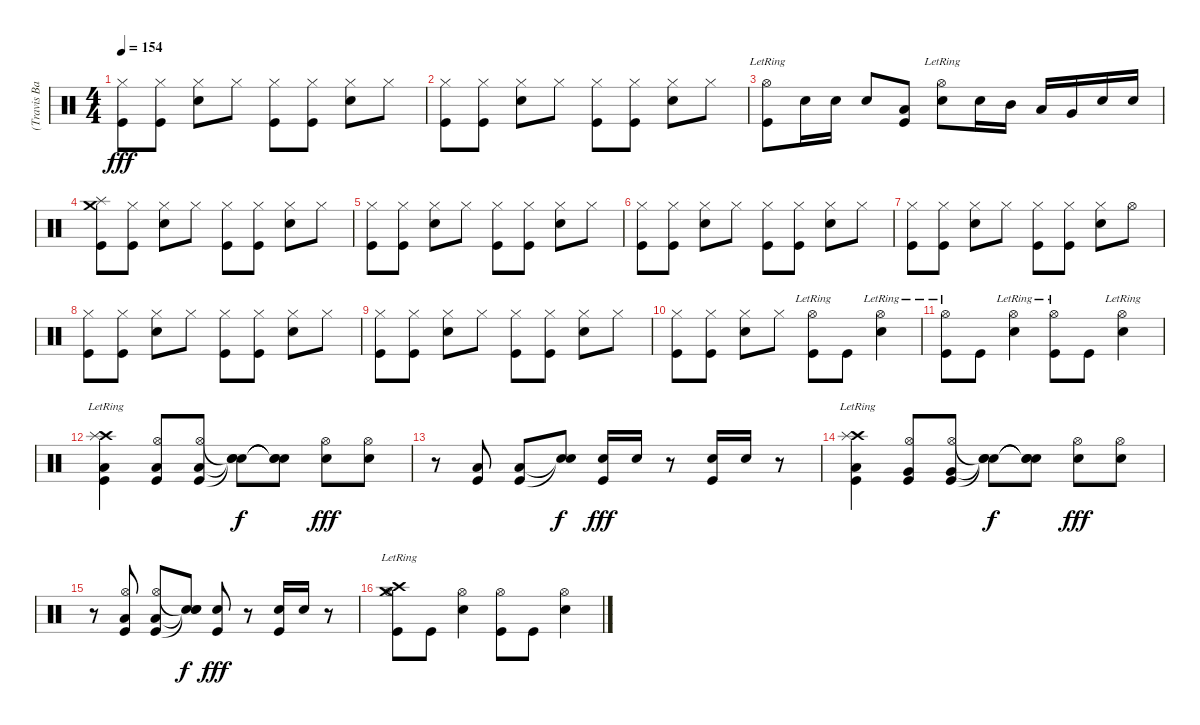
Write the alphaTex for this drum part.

\track ("(Travis Barker) Drums" "(Travis Ba") {instrument percussion}
\staff {score}
\articulation defaults
\ts (4 4)
\tempo 154
\clef neutral
\ks c
("Hi-Hat (closed)" "Kick (hit)").8{dy fff} ("Hi-Hat (closed)" "Kick (hit)").8 ("Hi-Hat (closed)" "Snare (hit) 2").8 "Hi-Hat (closed)".8 ("Hi-Hat (closed)" "Kick (hit)").8 ("Hi-Hat (closed)" "Kick (hit)").8 ("Hi-Hat (closed)" "Snare (hit) 2").8 "Hi-Hat (closed)".8 |
("Hi-Hat (closed)" "Kick (hit)").8 ("Hi-Hat (closed)" "Kick (hit)").8 ("Hi-Hat (closed)" "Snare (hit) 2").8 "Hi-Hat (closed)".8 ("Hi-Hat (closed)" "Kick (hit)").8 ("Hi-Hat (closed)" "Kick (hit)").8 ("Hi-Hat (closed)" "Snare (hit) 2").8 "Hi-Hat (closed)".8 |
("Hi-Hat (open)"{lr} "Kick (hit)").8 "Snare (hit) 2".16 "Snare (hit) 2".16 "Snare (hit) 2".8 ("Low Tom (hit)" "Kick (hit)").8 ("Hi-Hat (open)"{lr} "Snare (hit) 2").8 "Snare (hit) 2".16 "Mid Tom (hit)".16 "Low Tom (hit)".16 "Very Low Tom (hit)".16 "Snare (hit) 2".16 "Snare (hit) 2".16 |
("Splash (hit)" "Crash medium (hit)" "Kick (hit)").8 ("Hi-Hat (closed)" "Kick (hit)").8 ("Hi-Hat (closed)" "Snare (hit) 2").8 "Hi-Hat (closed)".8 ("Hi-Hat (closed)" "Kick (hit)").8 ("Hi-Hat (closed)" "Kick (hit)").8 ("Hi-Hat (closed)" "Snare (hit) 2").8 "Hi-Hat (closed)".8 |
("Hi-Hat (closed)" "Kick (hit)").8 ("Hi-Hat (closed)" "Kick (hit)").8 ("Hi-Hat (closed)" "Snare (hit) 2").8 "Hi-Hat (closed)".8 ("Hi-Hat (closed)" "Kick (hit)").8 ("Hi-Hat (closed)" "Kick (hit)").8 ("Hi-Hat (closed)" "Snare (hit) 2").8 "Hi-Hat (closed)".8 |
("Hi-Hat (closed)" "Kick (hit)").8 ("Hi-Hat (closed)" "Kick (hit)").8 ("Hi-Hat (closed)" "Snare (hit) 2").8 "Hi-Hat (closed)".8 ("Hi-Hat (closed)" "Kick (hit)").8 ("Hi-Hat (closed)" "Kick (hit)").8 ("Hi-Hat (closed)" "Snare (hit) 2").8 "Hi-Hat (closed)".8 |
("Hi-Hat (closed)" "Kick (hit)").8 ("Hi-Hat (closed)" "Kick (hit)").8 ("Hi-Hat (closed)" "Snare (hit) 2").8 "Hi-Hat (closed)".8 ("Hi-Hat (closed)" "Kick (hit)").8 ("Hi-Hat (closed)" "Kick (hit)").8 ("Hi-Hat (closed)" "Snare (hit) 2").8 "Hi-Hat (open)".8 |
("Hi-Hat (closed)" "Kick (hit)").8 ("Hi-Hat (closed)" "Kick (hit)").8 ("Hi-Hat (closed)" "Snare (hit) 2").8 "Hi-Hat (closed)".8 ("Hi-Hat (closed)" "Kick (hit)").8 ("Hi-Hat (closed)" "Kick (hit)").8 ("Hi-Hat (closed)" "Snare (hit) 2").8 "Hi-Hat (closed)".8 |
("Hi-Hat (closed)" "Kick (hit)").8 ("Hi-Hat (closed)" "Kick (hit)").8 ("Hi-Hat (closed)" "Snare (hit) 2").8 "Hi-Hat (closed)".8 ("Hi-Hat (closed)" "Kick (hit)").8 ("Hi-Hat (closed)" "Kick (hit)").8 ("Hi-Hat (closed)" "Snare (hit) 2").8 "Hi-Hat (closed)".8 |
("Hi-Hat (closed)" "Kick (hit)").8 ("Hi-Hat (closed)" "Kick (hit)").8 ("Hi-Hat (closed)" "Snare (hit) 2").8 "Hi-Hat (closed)".8 ("Hi-Hat (open)"{lr} "Kick (hit)").8 "Kick (hit)".8 ("Hi-Hat (open)"{lr} "Snare (hit) 2").4 |
("Hi-Hat (open)"{lr} "Kick (hit)").8 "Kick (hit)".8 ("Hi-Hat (open)"{lr} "Snare (hit) 2").4 ("Hi-Hat (open)"{lr} "Kick (hit)").8 "Kick (hit)".8 ("Hi-Hat (open)"{lr} "Snare (hit) 2").4 |
("Crash high (hit)"{lr} "Splash (hit)"{lr} "Low Tom (hit)"{lr} "Kick (hit)"{lr}).4 ("Hi-Hat (open)" "Low Tom (hit)" "Kick (hit)").8 ("Hi-Hat (open)" "Low Tom (hit)" "Kick (hit)").8 ("Snare (hit)"{t} "Snare (hit)"{t} "Snare (hit)"{t}).8{dy f} ("Snare (hit)"{t} "Snare (hit)"{t} "Snare (hit)"{t}).8 ("Hi-Hat (open)" "Snare (hit) 2").8{dy fff} ("Hi-Hat (open)" "Snare (hit) 2").8 |
r.8 ("Low Tom (hit)" "Kick (hit)").8 ("Low Tom (hit)" "Kick (hit)").8 ("Snare (hit)"{t} "Snare (hit)"{t}).8{dy f} ("Snare (hit) 2" "Kick (hit)").16{dy fff} "Snare (hit) 2".16 r.8 ("Snare (hit) 2" "Kick (hit)").16 "Snare (hit) 2".16 r.8 |
("Crash high (hit)"{lr} "Splash (hit)"{lr} "Low Tom (hit)"{lr} "Kick (hit)"{lr}).4 ("Hi-Hat (open)" "Very Low Tom (hit)" "Kick (hit)").8 ("Hi-Hat (open)" "Very Low Tom (hit)" "Kick (hit)").8 ("Snare (hit)"{t} "Snare (hit)"{t} "Snare (hit)"{t}).8{dy f} ("Snare (hit)"{t} "Snare (hit)"{t} "Snare (hit)"{t}).8 ("Hi-Hat (open)" "Snare (hit) 2").8{dy fff} ("Hi-Hat (open)" "Snare (hit) 2").8 |
r.8 ("Hi-Hat (open)" "Low Tom (hit)" "Kick (hit)").8 ("Hi-Hat (open)" "Low Tom (hit)" "Kick (hit)").8 ("Snare (hit)"{t} "Snare (hit)"{t} "Snare (hit)"{t}).8{dy f} ("Snare (hit) 2" "Kick (hit)").8{dy fff} r.8 ("Snare (hit) 2" "Kick (hit)").16 "Snare (hit) 2".16 r.8 |
("Crash high (hit)"{lr} "Hi-Hat (open)" "Crash medium (hit)"{lr} "Kick (hit)").8 "Kick (hit)".8 ("Hi-Hat (open)" "Snare (hit) 2").4 ("Hi-Hat (open)" "Kick (hit)").8 "Kick (hit)".8 ("Hi-Hat (open)" "Snare (hit) 2").4
